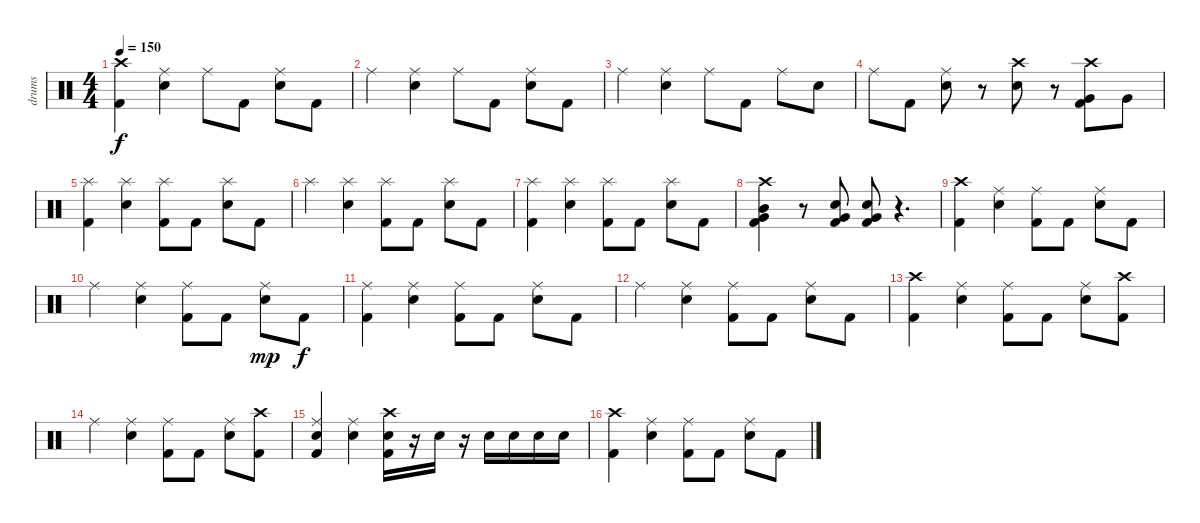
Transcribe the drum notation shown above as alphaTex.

\track ("drums" "drums") {instrument percussion}
\staff {score}
\articulation defaults
\ts (4 4)
\tempo 150
\clef neutral
\ks c
("Crash high (hit)" "Kick (hit) 2").4{dy f} ("Ride (middle)" "Snare (hit) 2").4 "Ride (middle)".8 "Kick (hit) 2".8 ("Ride (middle)" "Snare (hit) 2").8 "Kick (hit) 2".8 |
"Ride (middle)".4 ("Ride (middle)" "Snare (hit) 2").4 "Ride (middle)".8 "Kick (hit) 2".8 ("Ride (middle)" "Snare (hit) 2").8 "Kick (hit) 2".8 |
"Ride (middle)".4 ("Ride (middle)" "Snare (hit) 2").4 "Ride (middle)".8 "Kick (hit) 2".8 "Ride (middle)".8 "Snare (hit) 2".8 |
"Ride (middle)".8 "Kick (hit) 2".8 ("Ride (middle)" "Snare (hit) 2").8 r.8 ("Crash high (hit)" "Snare (hit) 2").8 r.8 ("Crash high (hit)" "Very Low Tom (hit)" "Kick (hit) 2").8 "Very Low Tom (hit)".8 |
("Splash (hit)" "Kick (hit) 2").4 ("Splash (hit)" "Snare (hit) 2").4 ("Splash (hit)" "Kick (hit) 2").8 "Kick (hit) 2".8 ("Splash (hit)" "Snare (hit) 2").8 "Kick (hit) 2".8 |
"Splash (hit)".4 ("Splash (hit)" "Snare (hit) 2").4 ("Splash (hit)" "Kick (hit) 2").8 "Kick (hit) 2".8 ("Splash (hit)" "Snare (hit) 2").8 "Kick (hit) 2".8 |
("Splash (hit)" "Kick (hit) 2").4 ("Splash (hit)" "Snare (hit) 2").4 ("Splash (hit)" "Kick (hit) 2").8 "Kick (hit) 2".8 ("Splash (hit)" "Snare (hit) 2").8 "Kick (hit) 2".8 |
("Crash high (hit)" "Mid Tom (hit)" "Very Low Tom (hit)" "Kick (hit) 2").4 r.8 ("Very Low Tom (hit)" "Snare (hit) 2" "Kick (hit) 2").8 ("Very Low Tom (hit)" "Snare (hit) 2" "Kick (hit) 2").8 r.4{d} |
("Crash high (hit)" "Kick (hit) 2").4 ("Ride (middle)" "Snare (hit) 2").4 ("Ride (middle)" "Kick (hit) 2").8 "Kick (hit) 2".8 ("Ride (middle)" "Snare (hit) 2").8 "Kick (hit) 2".8 |
"Ride (middle)".4 ("Ride (middle)" "Snare (hit) 2").4 ("Ride (middle)" "Kick (hit) 2").8 "Kick (hit) 2".8 ("Ride (middle)" "Snare (hit) 2").8{dy mp} "Kick (hit) 2".8{dy f} |
("Ride (middle)" "Kick (hit) 2").4 ("Ride (middle)" "Snare (hit) 2").4 ("Ride (middle)" "Kick (hit) 2").8 "Kick (hit) 2".8 ("Ride (middle)" "Snare (hit) 2").8 "Kick (hit) 2".8 |
"Ride (middle)".4 ("Ride (middle)" "Snare (hit) 2").4 ("Ride (middle)" "Kick (hit) 2").8 "Kick (hit) 2".8 ("Ride (middle)" "Snare (hit) 2").8 "Kick (hit) 2".8 |
("Crash high (hit)" "Kick (hit) 2").4 ("Ride (middle)" "Snare (hit) 2").4 ("Ride (middle)" "Kick (hit) 2").8 "Kick (hit) 2".8 ("Ride (middle)" "Snare (hit) 2").8 ("Crash high (hit)" "Kick (hit) 2").8 |
"Ride (middle)".4 ("Ride (middle)" "Snare (hit) 2").4 ("Ride (middle)" "Kick (hit) 2").8 "Kick (hit) 2".8 ("Ride (middle)" "Snare (hit) 2").8 ("Crash high (hit)" "Kick (hit) 2").8 |
("Ride (middle)" "Snare (hit) 2" "Kick (hit) 2").4 ("Ride (middle)" "Snare (hit) 2").4 ("Crash high (hit)" "Snare (hit) 2" "Kick (hit) 2").16 r.16 "Snare (hit) 2".16 r.16 "Snare (hit) 2".16 "Snare (hit) 2".16 "Snare (hit) 2".16 "Snare (hit) 2".16 |
("Crash high (hit)" "Kick (hit) 2").4 ("Ride (middle)" "Snare (hit) 2").4 ("Ride (middle)" "Kick (hit) 2").8 "Kick (hit) 2".8 ("Ride (middle)" "Snare (hit) 2").8 "Kick (hit) 2".8
